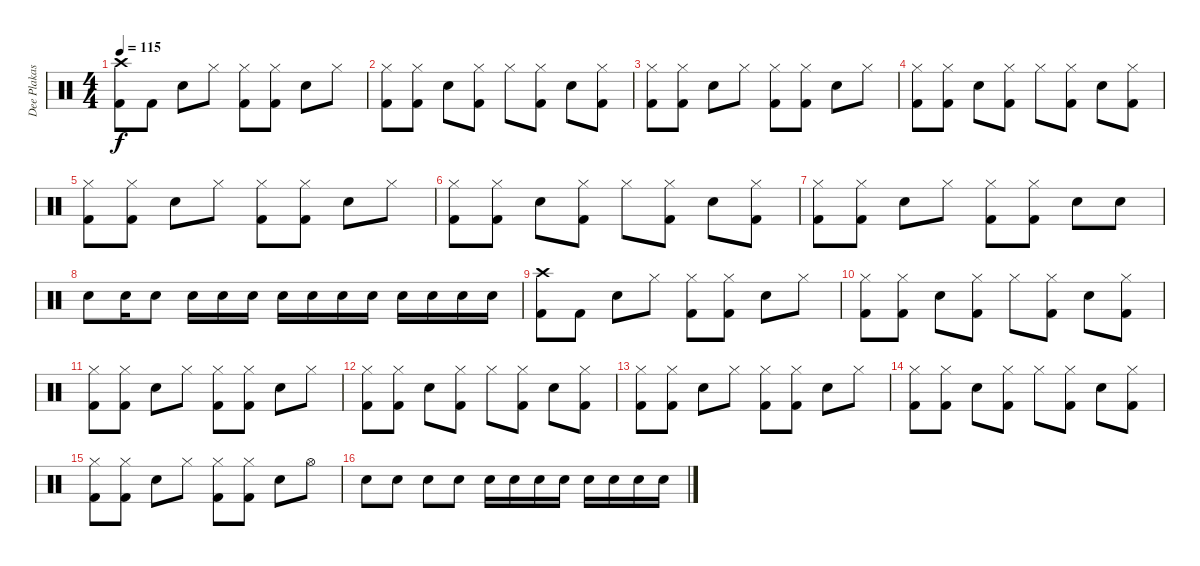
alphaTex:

\track ("Dee Plakas" "Dee Plakas") {instrument percussion}
\staff {score}
\articulation defaults
\ts (4 4)
\tempo 115
\clef neutral
\ks c
("Crash high (hit)" "Kick (hit) 2").8{dy f} "Kick (hit) 2".8 "Snare (hit) 2".8 "Hi-Hat (closed)".8 ("Hi-Hat (closed)" "Kick (hit) 2").8 ("Hi-Hat (closed)" "Kick (hit) 2").8 "Snare (hit) 2".8 "Hi-Hat (closed)".8 |
("Hi-Hat (closed)" "Kick (hit) 2").8 ("Hi-Hat (closed)" "Kick (hit) 2").8 "Snare (hit) 2".8 ("Hi-Hat (closed)" "Kick (hit) 2").8 "Hi-Hat (closed)".8 ("Hi-Hat (closed)" "Kick (hit) 2").8 "Snare (hit) 2".8 ("Hi-Hat (closed)" "Kick (hit) 2").8 |
("Hi-Hat (closed)" "Kick (hit) 2").8 ("Hi-Hat (closed)" "Kick (hit) 2").8 "Snare (hit) 2".8 "Hi-Hat (closed)".8 ("Hi-Hat (closed)" "Kick (hit) 2").8 ("Hi-Hat (closed)" "Kick (hit) 2").8 "Snare (hit) 2".8 "Hi-Hat (closed)".8 |
("Hi-Hat (closed)" "Kick (hit) 2").8 ("Hi-Hat (closed)" "Kick (hit) 2").8 "Snare (hit) 2".8 ("Hi-Hat (closed)" "Kick (hit) 2").8 "Hi-Hat (closed)".8 ("Hi-Hat (closed)" "Kick (hit) 2").8 "Snare (hit) 2".8 ("Hi-Hat (closed)" "Kick (hit) 2").8 |
("Hi-Hat (closed)" "Kick (hit) 2").8 ("Hi-Hat (closed)" "Kick (hit) 2").8 "Snare (hit) 2".8 "Hi-Hat (closed)".8 ("Hi-Hat (closed)" "Kick (hit) 2").8 ("Hi-Hat (closed)" "Kick (hit) 2").8 "Snare (hit) 2".8 "Hi-Hat (closed)".8 |
("Hi-Hat (closed)" "Kick (hit) 2").8 ("Hi-Hat (closed)" "Kick (hit) 2").8 "Snare (hit) 2".8 ("Hi-Hat (closed)" "Kick (hit) 2").8 "Hi-Hat (closed)".8 ("Hi-Hat (closed)" "Kick (hit) 2").8 "Snare (hit) 2".8 ("Hi-Hat (closed)" "Kick (hit) 2").8 |
("Hi-Hat (closed)" "Kick (hit) 2").8 ("Hi-Hat (closed)" "Kick (hit) 2").8 "Snare (hit) 2".8 "Hi-Hat (closed)".8 ("Hi-Hat (closed)" "Kick (hit) 2").8 ("Hi-Hat (closed)" "Kick (hit) 2").8 "Snare (hit) 2".8 "Snare (hit) 2".8 |
"Snare (hit) 2".8 "Snare (hit) 2".16 "Snare (hit) 2".8 "Snare (hit) 2".16 "Snare (hit) 2".16 "Snare (hit) 2".16 "Snare (hit) 2".16 "Snare (hit) 2".16 "Snare (hit) 2".16 "Snare (hit) 2".16 "Snare (hit) 2".16 "Snare (hit) 2".16 "Snare (hit) 2".16 "Snare (hit) 2".16 |
("Crash high (hit)" "Kick (hit) 2").8 "Kick (hit) 2".8 "Snare (hit) 2".8 "Hi-Hat (closed)".8 ("Hi-Hat (closed)" "Kick (hit) 2").8 ("Hi-Hat (closed)" "Kick (hit) 2").8 "Snare (hit) 2".8 "Hi-Hat (closed)".8 |
("Hi-Hat (closed)" "Kick (hit) 2").8 ("Hi-Hat (closed)" "Kick (hit) 2").8 "Snare (hit) 2".8 ("Hi-Hat (closed)" "Kick (hit) 2").8 "Hi-Hat (closed)".8 ("Hi-Hat (closed)" "Kick (hit) 2").8 "Snare (hit) 2".8 ("Hi-Hat (closed)" "Kick (hit) 2").8 |
("Hi-Hat (closed)" "Kick (hit) 2").8 ("Hi-Hat (closed)" "Kick (hit) 2").8 "Snare (hit) 2".8 "Hi-Hat (closed)".8 ("Hi-Hat (closed)" "Kick (hit) 2").8 ("Hi-Hat (closed)" "Kick (hit) 2").8 "Snare (hit) 2".8 "Hi-Hat (closed)".8 |
("Hi-Hat (closed)" "Kick (hit) 2").8 ("Hi-Hat (closed)" "Kick (hit) 2").8 "Snare (hit) 2".8 ("Hi-Hat (closed)" "Kick (hit) 2").8 "Hi-Hat (closed)".8 ("Hi-Hat (closed)" "Kick (hit) 2").8 "Snare (hit) 2".8 ("Hi-Hat (closed)" "Kick (hit) 2").8 |
("Hi-Hat (closed)" "Kick (hit) 2").8 ("Hi-Hat (closed)" "Kick (hit) 2").8 "Snare (hit) 2".8 "Hi-Hat (closed)".8 ("Hi-Hat (closed)" "Kick (hit) 2").8 ("Hi-Hat (closed)" "Kick (hit) 2").8 "Snare (hit) 2".8 "Hi-Hat (closed)".8 |
("Hi-Hat (closed)" "Kick (hit) 2").8 ("Hi-Hat (closed)" "Kick (hit) 2").8 "Snare (hit) 2".8 ("Hi-Hat (closed)" "Kick (hit) 2").8 "Hi-Hat (closed)".8 ("Hi-Hat (closed)" "Kick (hit) 2").8 "Snare (hit) 2".8 ("Hi-Hat (closed)" "Kick (hit) 2").8 |
("Hi-Hat (closed)" "Kick (hit) 2").8 ("Hi-Hat (closed)" "Kick (hit) 2").8 "Snare (hit) 2".8 "Hi-Hat (closed)".8 ("Hi-Hat (closed)" "Kick (hit) 2").8 ("Hi-Hat (closed)" "Kick (hit) 2").8 "Snare (hit) 2".8 "Hi-Hat (open)".8 |
"Snare (hit) 2".8 "Snare (hit) 2".8 "Snare (hit) 2".8 "Snare (hit) 2".8 "Snare (hit) 2".16 "Snare (hit) 2".16 "Snare (hit) 2".16 "Snare (hit) 2".16 "Snare (hit) 2".16 "Snare (hit) 2".16 "Snare (hit) 2".16 "Snare (hit) 2".16
